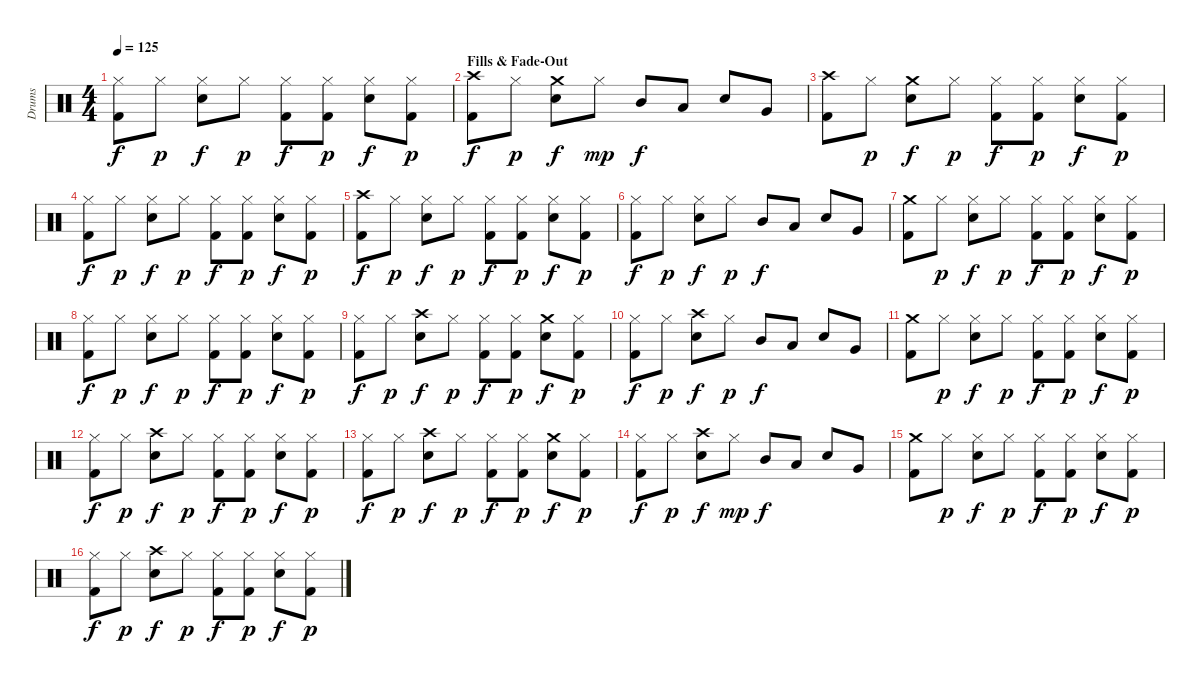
\track ("Drums" "Drums") {instrument percussion}
\staff {score}
\articulation defaults
\ts (4 4)
\tempo 125
\clef neutral
\ks c
("Hi-Hat (closed)" "Kick (hit) 2").8{dy f} "Hi-Hat (closed)".8{dy p} ("Hi-Hat (closed)" "Snare (hit) 2").8{dy f} "Hi-Hat (closed)".8{dy p} ("Hi-Hat (closed)" "Kick (hit) 2").8{dy f} ("Hi-Hat (closed)" "Kick (hit) 2").8{dy p} ("Hi-Hat (closed)" "Snare (hit) 2").8{dy f} ("Hi-Hat (closed)" "Kick (hit) 2").8{dy p} |
\section ("" "Fills & Fade-Out")
("Crash high (hit)" "Kick (hit) 2").8{dy f} "Hi-Hat (closed)".8{dy p} ("Crash medium (hit)" "Snare (hit) 2").8{dy f} "Hi-Hat (closed)".8{dy mp} "Mid Tom (hit)".8{dy f} "Low Tom (hit)".8 "Snare (hit) 2".8 "Very Low Tom (hit)".8 |
("Crash high (hit)" "Kick (hit) 2").8 "Hi-Hat (closed)".8{dy p} ("Crash medium (hit)" "Snare (hit) 2").8{dy f} "Hi-Hat (closed)".8{dy p} ("Hi-Hat (closed)" "Kick (hit) 2").8{dy f} ("Hi-Hat (closed)" "Kick (hit) 2").8{dy p} ("Hi-Hat (closed)" "Snare (hit) 2").8{dy f} ("Hi-Hat (closed)" "Kick (hit) 2").8{dy p} |
("Hi-Hat (closed)" "Kick (hit) 2").8{dy f} "Hi-Hat (closed)".8{dy p} ("Hi-Hat (closed)" "Snare (hit) 2").8{dy f} "Hi-Hat (closed)".8{dy p} ("Hi-Hat (closed)" "Kick (hit) 2").8{dy f} ("Hi-Hat (closed)" "Kick (hit) 2").8{dy p} ("Hi-Hat (closed)" "Snare (hit) 2").8{dy f} ("Hi-Hat (closed)" "Kick (hit) 2").8{dy p} |
("Crash high (hit)" "Kick (hit) 2").8{dy f} "Hi-Hat (closed)".8{dy p} ("Hi-Hat (closed)" "Snare (hit) 2").8{dy f} "Hi-Hat (closed)".8{dy p} ("Hi-Hat (closed)" "Kick (hit) 2").8{dy f} ("Hi-Hat (closed)" "Kick (hit) 2").8{dy p} ("Hi-Hat (closed)" "Snare (hit) 2").8{dy f} ("Hi-Hat (closed)" "Kick (hit) 2").8{dy p} |
("Hi-Hat (closed)" "Kick (hit) 2").8{dy f} "Hi-Hat (closed)".8{dy p} ("Hi-Hat (closed)" "Snare (hit) 2").8{dy f} "Hi-Hat (closed)".8{dy p} "Mid Tom (hit)".8{dy f} "Low Tom (hit)".8 "Snare (hit) 2".8 "Very Low Tom (hit)".8 |
("Crash medium (hit)" "Kick (hit) 2").8 "Hi-Hat (closed)".8{dy p} ("Hi-Hat (closed)" "Snare (hit) 2").8{dy f} "Hi-Hat (closed)".8{dy p} ("Hi-Hat (closed)" "Kick (hit) 2").8{dy f} ("Hi-Hat (closed)" "Kick (hit) 2").8{dy p} ("Hi-Hat (closed)" "Snare (hit) 2").8{dy f} ("Hi-Hat (closed)" "Kick (hit) 2").8{dy p} |
("Hi-Hat (closed)" "Kick (hit) 2").8{dy f} "Hi-Hat (closed)".8{dy p} ("Hi-Hat (closed)" "Snare (hit) 2").8{dy f} "Hi-Hat (closed)".8{dy p} ("Hi-Hat (closed)" "Kick (hit) 2").8{dy f} ("Hi-Hat (closed)" "Kick (hit) 2").8{dy p} ("Hi-Hat (closed)" "Snare (hit) 2").8{dy f} ("Hi-Hat (closed)" "Kick (hit) 2").8{dy p} |
("Hi-Hat (closed)" "Kick (hit) 2").8{dy f} "Hi-Hat (closed)".8{dy p} ("Crash high (hit)" "Snare (hit) 2").8{dy f} "Hi-Hat (closed)".8{dy p} ("Hi-Hat (closed)" "Kick (hit) 2").8{dy f} ("Hi-Hat (closed)" "Kick (hit) 2").8{dy p} ("Crash medium (hit)" "Snare (hit) 2").8{dy f} ("Hi-Hat (closed)" "Kick (hit) 2").8{dy p} |
("Hi-Hat (closed)" "Kick (hit) 2").8{dy f} "Hi-Hat (closed)".8{dy p} ("Crash high (hit)" "Snare (hit) 2").8{dy f} "Hi-Hat (closed)".8{dy p} "Mid Tom (hit)".8{dy f} "Low Tom (hit)".8 "Snare (hit) 2".8 "Very Low Tom (hit)".8 |
("Crash medium (hit)" "Kick (hit) 2").8 "Hi-Hat (closed)".8{dy p} ("Hi-Hat (closed)" "Snare (hit) 2").8{dy f} "Hi-Hat (closed)".8{dy p} ("Hi-Hat (closed)" "Kick (hit) 2").8{dy f} ("Hi-Hat (closed)" "Kick (hit) 2").8{dy p} ("Hi-Hat (closed)" "Snare (hit) 2").8{dy f} ("Hi-Hat (closed)" "Kick (hit) 2").8{dy p} |
("Hi-Hat (closed)" "Kick (hit) 2").8{dy f} "Hi-Hat (closed)".8{dy p} ("Crash high (hit)" "Snare (hit) 2").8{dy f} "Hi-Hat (closed)".8{dy p} ("Hi-Hat (closed)" "Kick (hit) 2").8{dy f} ("Hi-Hat (closed)" "Kick (hit) 2").8{dy p} ("Hi-Hat (closed)" "Snare (hit) 2").8{dy f} ("Hi-Hat (closed)" "Kick (hit) 2").8{dy p} |
("Hi-Hat (closed)" "Kick (hit) 2").8{dy f} "Hi-Hat (closed)".8{dy p} ("Crash high (hit)" "Snare (hit) 2").8{dy f} "Hi-Hat (closed)".8{dy p} ("Hi-Hat (closed)" "Kick (hit) 2").8{dy f} ("Hi-Hat (closed)" "Kick (hit) 2").8{dy p} ("Crash medium (hit)" "Snare (hit) 2").8{dy f} ("Hi-Hat (closed)" "Kick (hit) 2").8{dy p} |
("Hi-Hat (closed)" "Kick (hit) 2").8{dy f} "Hi-Hat (closed)".8{dy p} ("Crash high (hit)" "Snare (hit) 2").8{dy f} "Hi-Hat (closed)".8{dy mp} "Mid Tom (hit)".8{dy f} "Low Tom (hit)".8 "Snare (hit) 2".8 "Very Low Tom (hit)".8 |
("Crash medium (hit)" "Kick (hit) 2").8 "Hi-Hat (closed)".8{dy p} ("Hi-Hat (closed)" "Snare (hit) 2").8{dy f} "Hi-Hat (closed)".8{dy p} ("Hi-Hat (closed)" "Kick (hit) 2").8{dy f} ("Hi-Hat (closed)" "Kick (hit) 2").8{dy p} ("Hi-Hat (closed)" "Snare (hit) 2").8{dy f} ("Hi-Hat (closed)" "Kick (hit) 2").8{dy p} |
("Hi-Hat (closed)" "Kick (hit) 2").8{dy f} "Hi-Hat (closed)".8{dy p} ("Crash high (hit)" "Snare (hit) 2").8{dy f} "Hi-Hat (closed)".8{dy p} ("Hi-Hat (closed)" "Kick (hit) 2").8{dy f} ("Hi-Hat (closed)" "Kick (hit) 2").8{dy p} ("Hi-Hat (closed)" "Snare (hit) 2").8{dy f} ("Hi-Hat (closed)" "Kick (hit) 2").8{dy p}
